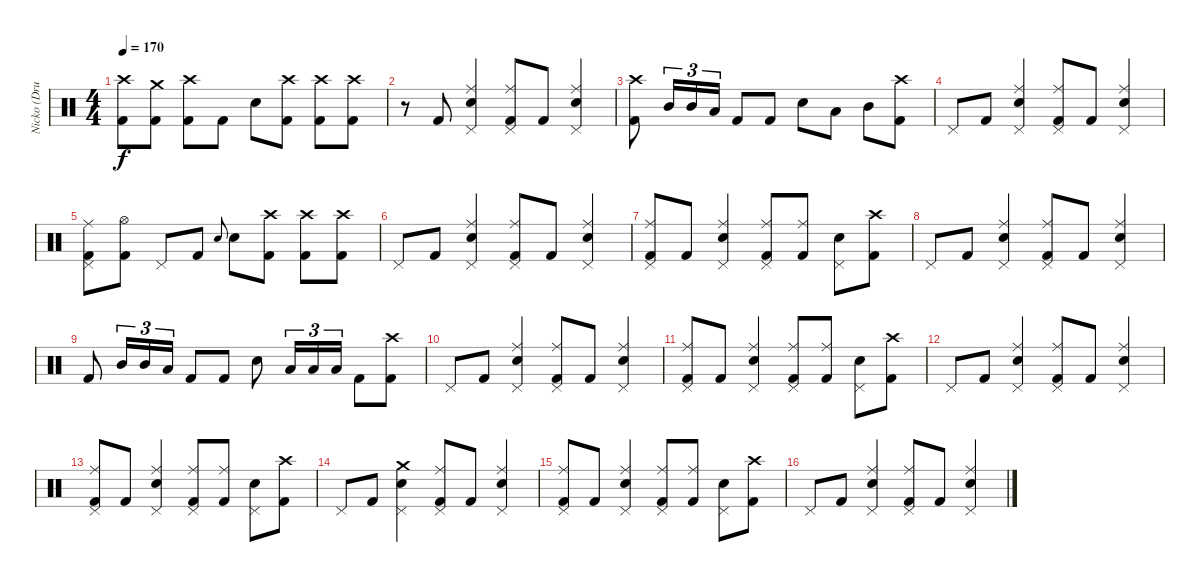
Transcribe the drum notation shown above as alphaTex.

\track ("Nicko (Drums)" "Nicko (Dru") {instrument percussion}
\staff {score}
\articulation defaults
\ts (4 4)
\tempo 170
\clef neutral
\ks c
("Crash high (hit)" "Kick (hit) 2").8{dy f} ("Crash medium (hit)" "Kick (hit) 2").8 ("Crash high (hit)" "Kick (hit) 2").8 "Kick (hit) 2".8 "Snare (hit) 2".8 ("Crash high (hit)" "Kick (hit) 2").8 ("Crash high (hit)" "Kick (hit) 2").8 ("Crash high (hit)" "Kick (hit) 2").8 |
r.8 "Kick (hit) 2".8 ("Ride (middle)" "Snare (hit) 2" "Pedal Hi-Hat (hit)").4 ("Ride (middle)" "Pedal Hi-Hat (hit)" "Kick (hit) 2").8 "Kick (hit) 2".8 ("Ride (middle)" "Snare (hit) 2" "Pedal Hi-Hat (hit)").4 |
("Crash high (hit)" "Kick (hit) 2").8 "Mid Tom (hit)".16{tu (3 2)} "Mid Tom (hit)".16{tu (3 2)} "Low Tom (hit)".16{tu (3 2)} "Kick (hit) 2".8 "Kick (hit) 2".8 "Snare (hit) 2".8 "Low Floor Tom (hit)".8 "Mid Tom (hit)".8 ("Crash high (hit)" "Kick (hit) 2").8 |
"Pedal Hi-Hat (hit)".8 "Kick (hit) 2".8 ("Ride (middle)" "Snare (hit) 2" "Pedal Hi-Hat (hit)").4 ("Ride (middle)" "Pedal Hi-Hat (hit)" "Kick (hit) 2").8 "Kick (hit) 2".8 ("Ride (middle)" "Snare (hit) 2" "Pedal Hi-Hat (hit)").4 |
("Ride (middle)" "Pedal Hi-Hat (hit)" "Kick (hit) 2").8 ("Hi-Hat (open)" "Kick (hit) 2").8 "Pedal Hi-Hat (hit)".8 "Kick (hit) 2".8 "Snare (hit) 2".8{gr onbeat} "Snare (hit) 2".8 ("Crash high (hit)" "Kick (hit) 2").8 ("Crash high (hit)" "Kick (hit) 2").8 ("Crash high (hit)" "Kick (hit) 2").8 |
"Pedal Hi-Hat (hit)".8 "Kick (hit) 2".8 ("Ride (middle)" "Snare (hit) 2" "Pedal Hi-Hat (hit)").4 ("Ride (middle)" "Pedal Hi-Hat (hit)" "Kick (hit) 2").8 "Kick (hit) 2".8 ("Ride (middle)" "Snare (hit) 2" "Pedal Hi-Hat (hit)").4 |
("Ride (middle)" "Pedal Hi-Hat (hit)" "Kick (hit) 2").8 "Kick (hit) 2".8 ("Ride (middle)" "Snare (hit) 2" "Pedal Hi-Hat (hit)").4 ("Ride (middle)" "Pedal Hi-Hat (hit)" "Kick (hit) 2").8 ("Ride (middle)" "Kick (hit) 2").8 ("Snare (hit) 2" "Pedal Hi-Hat (hit)").8 ("Crash high (hit)" "Kick (hit) 2").8 |
"Pedal Hi-Hat (hit)".8 "Kick (hit) 2".8 ("Ride (middle)" "Snare (hit) 2" "Pedal Hi-Hat (hit)").4 ("Ride (middle)" "Pedal Hi-Hat (hit)" "Kick (hit) 2").8 "Kick (hit) 2".8 ("Ride (middle)" "Snare (hit) 2" "Pedal Hi-Hat (hit)").4 |
"Kick (hit) 2".8 "Mid Tom (hit)".16{tu (3 2)} "Mid Tom (hit)".16{tu (3 2)} "Low Tom (hit)".16{tu (3 2)} "Kick (hit) 2".8 "Kick (hit) 2".8 "Snare (hit) 2".8 "Low Floor Tom (hit)".16{tu (3 2)} "Low Tom (hit)".16{tu (3 2)} "Low Floor Tom (hit)".16{tu (3 2)} "Kick (hit) 2".8 ("Crash high (hit)" "Kick (hit) 2").8 |
"Pedal Hi-Hat (hit)".8 "Kick (hit) 2".8 ("Ride (middle)" "Snare (hit) 2" "Pedal Hi-Hat (hit)").4 ("Ride (middle)" "Pedal Hi-Hat (hit)" "Kick (hit) 2").8 "Kick (hit) 2".8 ("Ride (middle)" "Snare (hit) 2" "Pedal Hi-Hat (hit)").4 |
("Ride (middle)" "Pedal Hi-Hat (hit)" "Kick (hit) 2").8 "Kick (hit) 2".8 ("Ride (middle)" "Snare (hit) 2" "Pedal Hi-Hat (hit)").4 ("Ride (middle)" "Pedal Hi-Hat (hit)" "Kick (hit) 2").8 ("Ride (middle)" "Kick (hit) 2").8 ("Snare (hit) 2" "Pedal Hi-Hat (hit)").8 ("Crash high (hit)" "Kick (hit) 2").8 |
"Pedal Hi-Hat (hit)".8 "Kick (hit) 2".8 ("Ride (middle)" "Snare (hit) 2" "Pedal Hi-Hat (hit)").4 ("Ride (middle)" "Pedal Hi-Hat (hit)" "Kick (hit) 2").8 "Kick (hit) 2".8 ("Ride (middle)" "Snare (hit) 2" "Pedal Hi-Hat (hit)").4 |
("Ride (middle)" "Pedal Hi-Hat (hit)" "Kick (hit) 2").8 "Kick (hit) 2".8 ("Ride (middle)" "Snare (hit) 2" "Pedal Hi-Hat (hit)").4 ("Ride (middle)" "Pedal Hi-Hat (hit)" "Kick (hit) 2").8 ("Ride (middle)" "Kick (hit) 2").8 ("Snare (hit) 2" "Pedal Hi-Hat (hit)").8 ("Crash high (hit)" "Kick (hit) 2").8 |
"Pedal Hi-Hat (hit)".8 "Kick (hit) 2".8 ("Crash medium (hit)" "Snare (hit) 2" "Pedal Hi-Hat (hit)").4 ("Ride (middle)" "Pedal Hi-Hat (hit)" "Kick (hit) 2").8 "Kick (hit) 2".8 ("Ride (middle)" "Snare (hit) 2" "Pedal Hi-Hat (hit)").4 |
("Ride (middle)" "Pedal Hi-Hat (hit)" "Kick (hit) 2").8 "Kick (hit) 2".8 ("Ride (middle)" "Snare (hit) 2" "Pedal Hi-Hat (hit)").4 ("Ride (middle)" "Pedal Hi-Hat (hit)" "Kick (hit) 2").8 ("Ride (middle)" "Kick (hit) 2").8 ("Snare (hit) 2" "Pedal Hi-Hat (hit)").8 ("Crash high (hit)" "Kick (hit) 2").8 |
"Pedal Hi-Hat (hit)".8 "Kick (hit) 2".8 ("Ride (middle)" "Snare (hit) 2" "Pedal Hi-Hat (hit)").4 ("Ride (middle)" "Pedal Hi-Hat (hit)" "Kick (hit) 2").8 "Kick (hit) 2".8 ("Ride (middle)" "Snare (hit) 2" "Pedal Hi-Hat (hit)").4
